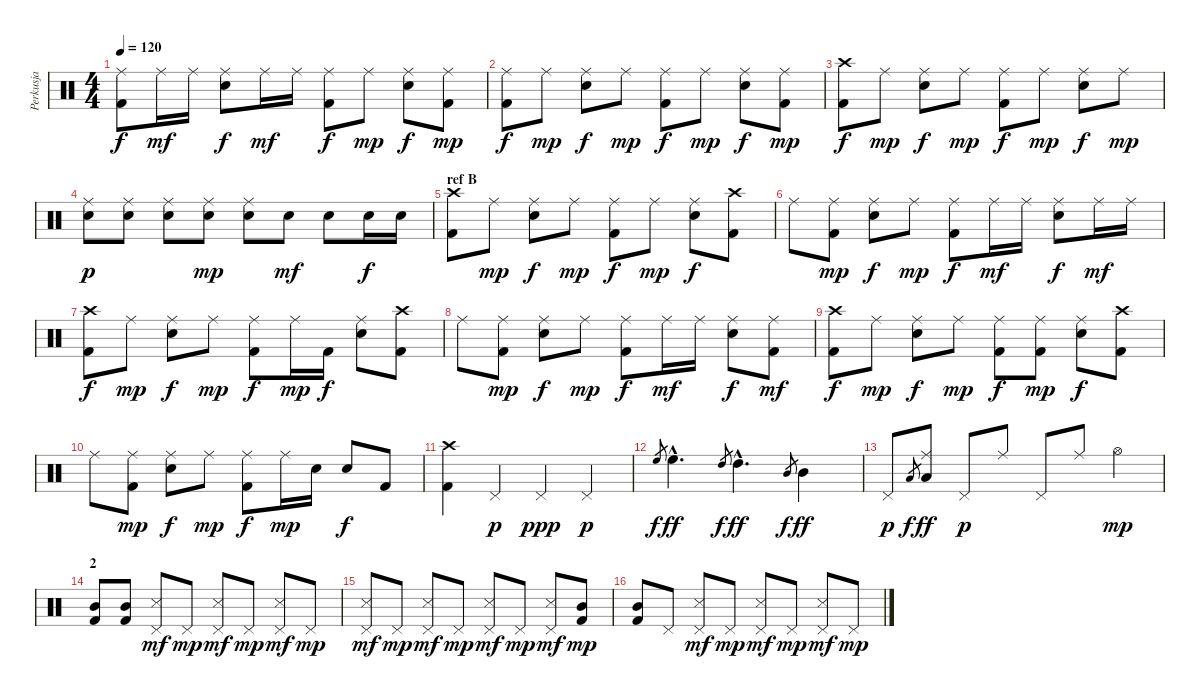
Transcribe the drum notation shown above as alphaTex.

\track ("Perkusja" "Perkusja") {instrument percussion}
\staff {score}
\articulation defaults
\ts (4 4)
\tempo 120
\clef neutral
\ks c
("Ride (middle)" "Kick (hit) 2").8{dy f} "Ride (middle)".16{dy mf} "Ride (middle)".16 ("Ride (middle)" "Snare (hit) 2").8{dy f} "Ride (middle)".16{dy mf} "Ride (middle)".16 ("Ride (middle)" "Kick (hit) 2").8{dy f} "Ride (middle)".8{dy mp} ("Ride (middle)" "Snare (hit) 2").8{dy f} ("Ride (middle)" "Kick (hit) 2").8{dy mp} |
("Ride (middle)" "Kick (hit) 2").8{dy f} "Ride (middle)".8{dy mp} ("Ride (middle)" "Snare (hit) 2").8{dy f} "Ride (middle)".8{dy mp} ("Ride (middle)" "Kick (hit) 2").8{dy f} "Ride (middle)".8{dy mp} ("Ride (middle)" "Snare (hit) 2").8{dy f} ("Ride (middle)" "Kick (hit) 2").8{dy mp} |
("Crash high (hit)" "Kick (hit) 2").8{dy f} "Ride (middle)".8{dy mp} ("Ride (middle)" "Snare (hit) 2").8{dy f} "Ride (middle)".8{dy mp} ("Ride (middle)" "Kick (hit) 2").8{dy f} "Ride (middle)".8{dy mp} ("Ride (middle)" "Snare (hit) 2").8{dy f} "Ride (middle)".8{dy mp} |
("Ride (middle)" "Snare (hit) 2").8{dy p} ("Ride (middle)" "Snare (hit) 2").8 ("Ride (middle)" "Snare (hit) 2").8 ("Ride (middle)" "Snare (hit) 2").8{dy mp} ("Ride (middle)" "Snare (hit) 2").8 "Snare (hit) 2".8{dy mf} "Snare (hit) 2".8 "Snare (hit) 2".16{dy f} "Snare (hit) 2".16 |
\section ("" "ref B")
("Crash high (hit)" "Kick (hit) 2").8 "Ride (middle)".8{dy mp} ("Ride (middle)" "Snare (hit) 2").8{dy f} "Ride (middle)".8{dy mp} ("Ride (middle)" "Kick (hit) 2").8{dy f} "Ride (middle)".8{dy mp} ("Ride (middle)" "Snare (hit) 2").8{dy f} ("Crash high (hit)" "Kick (hit) 2").8 |
"Ride (middle)".8 ("Ride (middle)" "Kick (hit) 2").8{dy mp} ("Ride (middle)" "Snare (hit) 2").8{dy f} "Ride (middle)".8{dy mp} ("Ride (middle)" "Kick (hit) 2").8{dy f} "Ride (middle)".16{dy mf} "Ride (middle)".16 ("Ride (middle)" "Snare (hit) 2").8{dy f} "Ride (middle)".16{dy mf} "Ride (middle)".16 |
("Crash high (hit)" "Kick (hit) 2").8{dy f} "Ride (middle)".8{dy mp} ("Ride (middle)" "Snare (hit) 2").8{dy f} "Ride (middle)".8{dy mp} ("Ride (middle)" "Kick (hit) 2").8{dy f} "Ride (middle)".16{dy mp} "Kick (hit) 2".16{dy f} ("Ride (middle)" "Snare (hit) 2").8 ("Crash high (hit)" "Kick (hit) 2").8 |
"Ride (middle)".8 ("Ride (middle)" "Kick (hit) 2").8{dy mp} ("Ride (middle)" "Snare (hit) 2").8{dy f} "Ride (middle)".8{dy mp} ("Ride (middle)" "Kick (hit) 2").8{dy f} "Ride (middle)".16{dy mf} "Ride (middle)".16 ("Ride (middle)" "Snare (hit) 2").8{dy f} ("Ride (middle)" "Kick (hit) 2").8{dy mf} |
("Crash high (hit)" "Kick (hit) 2").8{dy f} "Ride (middle)".8{dy mp} ("Ride (middle)" "Snare (hit) 2").8{dy f} "Ride (middle)".8{dy mp} ("Ride (middle)" "Kick (hit) 2").8{dy f} ("Ride (middle)" "Kick (hit) 2").8{dy mp} ("Ride (middle)" "Snare (hit) 2").8{dy f} ("Crash high (hit)" "Kick (hit) 2").8 |
"Ride (middle)".8 ("Ride (middle)" "Kick (hit) 2").8{dy mp} ("Ride (middle)" "Snare (hit) 2").8{dy f} "Ride (middle)".8{dy mp} ("Ride (middle)" "Kick (hit) 2").8{dy f} "Ride (middle)".16{dy mp} "Snare (hit) 2".16 "Snare (hit) 2".8{dy f} "Kick (hit) 2".8 |
("Crash high (hit)" "Kick (hit) 2").4 "Pedal Hi-Hat (hit)".4{dy p} "Pedal Hi-Hat (hit)".4{dy ppp} "Pedal Hi-Hat (hit)".4{dy p} |
"High Floor Tom (hit)".8{gr dy f} "High Floor Tom (hit)"{hac}.4{d dy ff} "High Tom (hit)".8{gr dy f} "High Tom (hit)"{hac}.4{d dy ff} "Mid Tom (hit)".8{gr dy f} "Mid Tom (hit)".4{dy ff} |
"Pedal Hi-Hat (hit)".8{dy p} "Low Tom (hit)".8{gr dy f} ("Ride (middle)" "Low Tom (hit)").8{dy ff} "Pedal Hi-Hat (hit)".8{dy p} "Ride (middle)".8 "Pedal Hi-Hat (hit)".8 "Ride (middle)".8 "Hi-Hat (open)".4{dy mp} |
\section ("" "2")
("Mid Tom (hit)" "Kick (hit) 2").8 ("Mid Tom (hit)" "Kick (hit) 2").8 ("Snare (side stick) 3" "Pedal Hi-Hat (hit)").8{dy mf} "Pedal Hi-Hat (hit)".8{dy mp} ("Snare (side stick) 3" "Pedal Hi-Hat (hit)").8{dy mf} "Pedal Hi-Hat (hit)".8{dy mp} ("Snare (side stick) 3" "Pedal Hi-Hat (hit)").8{dy mf} "Pedal Hi-Hat (hit)".8{dy mp} |
("Snare (side stick) 3" "Pedal Hi-Hat (hit)").8{dy mf} "Pedal Hi-Hat (hit)".8{dy mp} ("Snare (side stick) 3" "Pedal Hi-Hat (hit)").8{dy mf} "Pedal Hi-Hat (hit)".8{dy mp} ("Snare (side stick) 3" "Pedal Hi-Hat (hit)").8{dy mf} "Pedal Hi-Hat (hit)".8{dy mp} ("Snare (side stick) 3" "Pedal Hi-Hat (hit)").8{dy mf} ("Mid Tom (hit)" "Kick (hit) 2").8{dy mp} |
("Mid Tom (hit)" "Kick (hit) 2").8 "Pedal Hi-Hat (hit)".8 ("Snare (side stick) 3" "Pedal Hi-Hat (hit)").8{dy mf} "Pedal Hi-Hat (hit)".8{dy mp} ("Snare (side stick) 3" "Pedal Hi-Hat (hit)").8{dy mf} "Pedal Hi-Hat (hit)".8{dy mp} ("Snare (side stick) 3" "Pedal Hi-Hat (hit)").8{dy mf} "Pedal Hi-Hat (hit)".8{dy mp}
